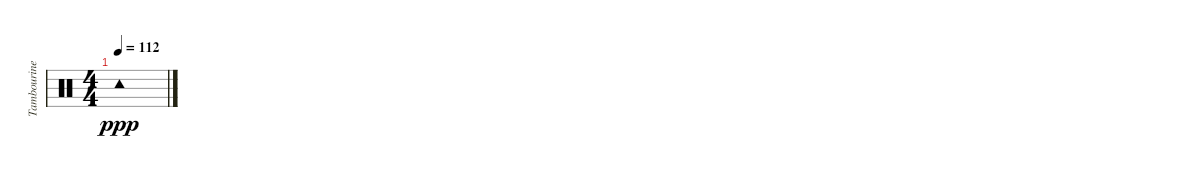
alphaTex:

\track ("Tambourine" "Tambourine") {instrument percussion}
\staff {score}
\articulation defaults
\ts (4 4)
\tempo 112
\clef neutral
\ks c "Tambourine (hit)".1{dy ppp}
